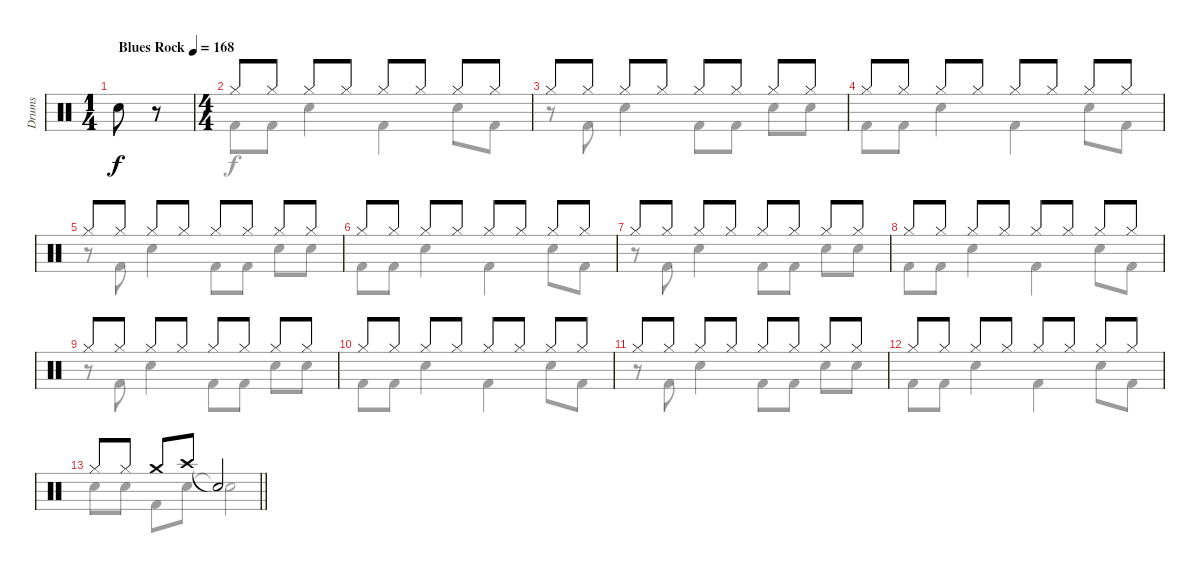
\track ("Drums" "Drums") {instrument percussion}
\staff {score}
\articulation defaults
\voice
\ts (1 4)
\tempo (168 "Blues Rock")
\clef neutral
\ks c "Electric Snare (hit)".8{dy f}
r.8 |
\ts (4 4)
"Hi-Hat (closed)".8 "Hi-Hat (closed)".8 "Hi-Hat (closed)".8 "Hi-Hat (closed)".8 "Hi-Hat (closed)".8 "Hi-Hat (closed)".8 "Hi-Hat (closed)".8 "Hi-Hat (closed)".8 |
"Hi-Hat (closed)".8 "Hi-Hat (closed)".8 "Hi-Hat (closed)".8 "Hi-Hat (closed)".8 "Hi-Hat (closed)".8 "Hi-Hat (closed)".8 "Hi-Hat (closed)".8 "Hi-Hat (closed)".8 |
"Hi-Hat (closed)".8 "Hi-Hat (closed)".8 "Hi-Hat (closed)".8 "Hi-Hat (closed)".8 "Hi-Hat (closed)".8 "Hi-Hat (closed)".8 "Hi-Hat (closed)".8 "Hi-Hat (closed)".8 |
"Hi-Hat (closed)".8 "Hi-Hat (closed)".8 "Hi-Hat (closed)".8 "Hi-Hat (closed)".8 "Hi-Hat (closed)".8 "Hi-Hat (closed)".8 "Hi-Hat (closed)".8 "Hi-Hat (closed)".8 |
"Hi-Hat (closed)".8 "Hi-Hat (closed)".8 "Hi-Hat (closed)".8 "Hi-Hat (closed)".8 "Hi-Hat (closed)".8 "Hi-Hat (closed)".8 "Hi-Hat (closed)".8 "Hi-Hat (closed)".8 |
"Hi-Hat (closed)".8 "Hi-Hat (closed)".8 "Hi-Hat (closed)".8 "Hi-Hat (closed)".8 "Hi-Hat (closed)".8 "Hi-Hat (closed)".8 "Hi-Hat (closed)".8 "Hi-Hat (closed)".8 |
"Hi-Hat (closed)".8 "Hi-Hat (closed)".8 "Hi-Hat (closed)".8 "Hi-Hat (closed)".8 "Hi-Hat (closed)".8 "Hi-Hat (closed)".8 "Hi-Hat (closed)".8 "Hi-Hat (closed)".8 |
"Hi-Hat (closed)".8 "Hi-Hat (closed)".8 "Hi-Hat (closed)".8 "Hi-Hat (closed)".8 "Hi-Hat (closed)".8 "Hi-Hat (closed)".8 "Hi-Hat (closed)".8 "Hi-Hat (closed)".8 |
"Hi-Hat (closed)".8 "Hi-Hat (closed)".8 "Hi-Hat (closed)".8 "Hi-Hat (closed)".8 "Hi-Hat (closed)".8 "Hi-Hat (closed)".8 "Hi-Hat (closed)".8 "Hi-Hat (closed)".8 |
"Hi-Hat (closed)".8 "Hi-Hat (closed)".8 "Hi-Hat (closed)".8 "Hi-Hat (closed)".8 "Hi-Hat (closed)".8 "Hi-Hat (closed)".8 "Hi-Hat (closed)".8 "Hi-Hat (closed)".8 |
"Hi-Hat (closed)".8 "Hi-Hat (closed)".8 "Hi-Hat (closed)".8 "Hi-Hat (closed)".8 "Hi-Hat (closed)".8 "Hi-Hat (closed)".8 "Hi-Hat (closed)".8 "Hi-Hat (closed)".8 |
\barLineRight lightlight "Hi-Hat (closed)".8 "Hi-Hat (closed)".8 "Crash medium (hit)".8 "Crash high (hit)".8 "Snare (hit)"{t}.2
\voice
\clef neutral
\ottava regular
\simile none
\ks c
|
"Kick (hit) 2".8 "Kick (hit) 2".8 "Electric Snare (hit)".4 "Kick (hit) 2".4 "Electric Snare (hit)".8 "Kick (hit) 2".8 |
r.8 "Kick (hit) 2".8 "Electric Snare (hit)".4 "Kick (hit) 2".8 "Kick (hit) 2".8 "Electric Snare (hit)".8 "Electric Snare (hit)".8 |
"Kick (hit) 2".8 "Kick (hit) 2".8 "Electric Snare (hit)".4 "Kick (hit) 2".4 "Electric Snare (hit)".8 "Kick (hit) 2".8 |
r.8 "Kick (hit) 2".8 "Electric Snare (hit)".4 "Kick (hit) 2".8 "Kick (hit) 2".8 "Electric Snare (hit)".8 "Electric Snare (hit)".8 |
"Kick (hit) 2".8 "Kick (hit) 2".8 "Electric Snare (hit)".4 "Kick (hit) 2".4 "Electric Snare (hit)".8 "Kick (hit) 2".8 |
r.8 "Kick (hit) 2".8 "Electric Snare (hit)".4 "Kick (hit) 2".8 "Kick (hit) 2".8 "Electric Snare (hit)".8 "Electric Snare (hit)".8 |
"Kick (hit) 2".8 "Kick (hit) 2".8 "Electric Snare (hit)".4 "Kick (hit) 2".4 "Electric Snare (hit)".8 "Kick (hit) 2".8 |
r.8 "Kick (hit) 2".8 "Electric Snare (hit)".4 "Kick (hit) 2".8 "Kick (hit) 2".8 "Electric Snare (hit)".8 "Electric Snare (hit)".8 |
"Kick (hit) 2".8 "Kick (hit) 2".8 "Electric Snare (hit)".4 "Kick (hit) 2".4 "Electric Snare (hit)".8 "Kick (hit) 2".8 |
r.8 "Kick (hit) 2".8 "Electric Snare (hit)".4 "Kick (hit) 2".8 "Kick (hit) 2".8 "Electric Snare (hit)".8 "Electric Snare (hit)".8 |
"Kick (hit) 2".8 "Kick (hit) 2".8 "Electric Snare (hit)".4 "Kick (hit) 2".4 "Electric Snare (hit)".8 "Kick (hit) 2".8 |
\barLineRight lightlight "Electric Snare (hit)".8 "Electric Snare (hit)".8 "Kick (hit) 2".8 "Electric Snare (hit)".8 "Snare (hit)"{t}.2
